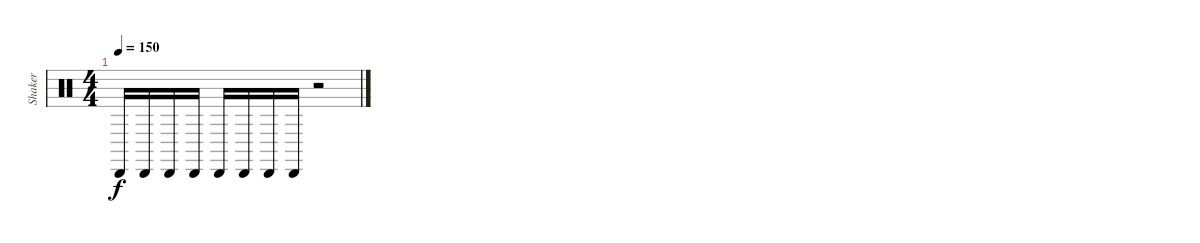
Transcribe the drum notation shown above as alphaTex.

\track ("Shaker" "Shaker") {instrument percussion bank 126}
\staff {score}
\articulation defaults
\ts (4 4)
\tempo 150
\clef neutral
\ks c "Cabasa (hit)".16{dy f} "Cabasa (hit)".16 "Cabasa (hit)".16 "Cabasa (hit)".16 "Cabasa (hit)".16 "Cabasa (hit)".16 "Cabasa (hit)".16 "Cabasa (hit)".16
r.2
